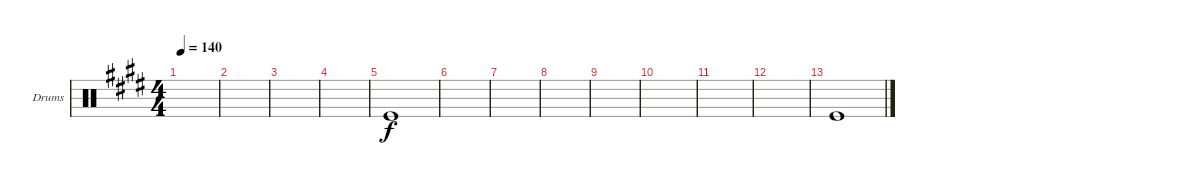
\defaultSystemsLayout 4
\bracketExtendMode groupsimilarinstruments
\firstSystemTrackNameOrientation horizontal
\otherSystemsTrackNameOrientation horizontal
\track ("Drumkit" "Drums") {instrument percussion}
\staff {score}
\articulation defaults
\ts (4 4)
\tempo 140
\clef neutral
\scale
0.333333
\ks e
|
\scale
0.333333 |
\scale
0.333333 |
\scale
0.333333 |
\scale
0.333333 "Kick (hit)".1 |
\scale
0.333333 |
\scale
0.333333 |
\scale
0.333333 |
\scale
0.333333 |
\scale
0.333333 |
\scale
0.333333 |
\scale
0.333333 |
\scale
0.333333 "Kick (hit)".1 |
\scale
0.333333 |
\scale
0.333333 |
\scale
0.333333
